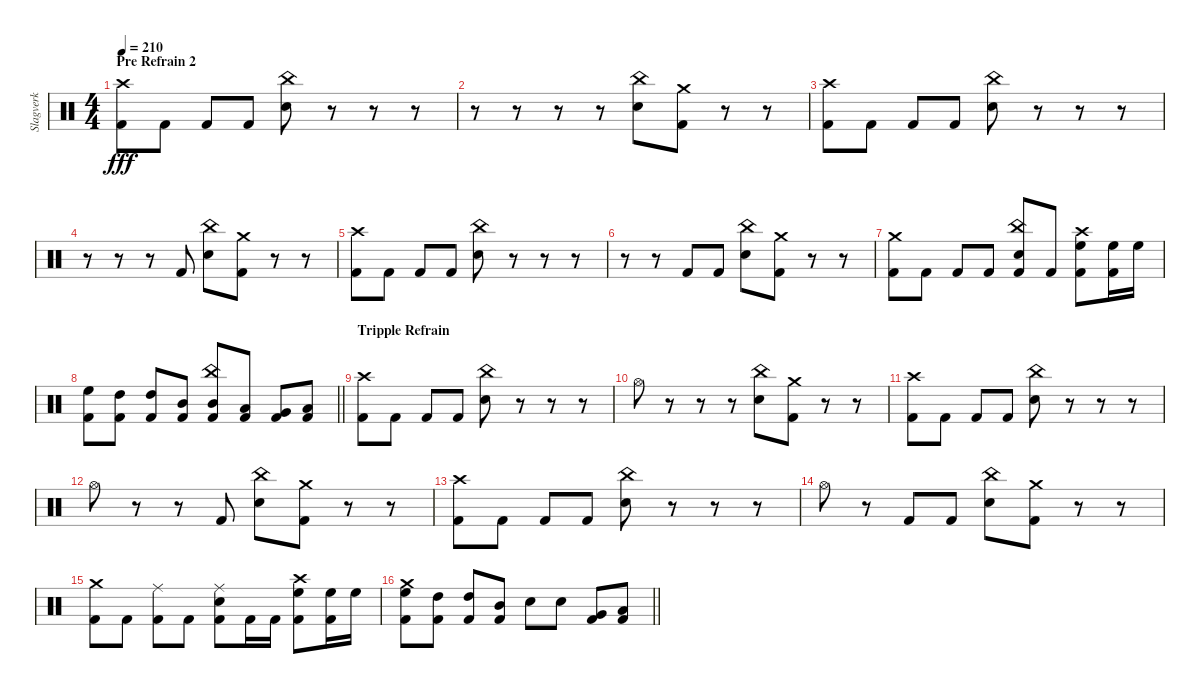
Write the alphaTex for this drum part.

\track ("Slagverk" "Slagverk") {instrument percussion}
\staff {score}
\articulation defaults
\ts (4 4)
\section ("" "Pre Refrain 2")
\tempo 210
\clef neutral
\ks c
("Crash high (hit)" "Kick (hit) 2").8{dy fff} "Kick (hit) 2".8 "Kick (hit) 2".8 "Kick (hit) 2".8 ("China (hit)" "Electric Snare (hit)").8 r.8 r.8 r.8 |
r.8 r.8 r.8 r.8 ("China (hit)" "Electric Snare (hit)").8 ("Crash medium (hit)" "Kick (hit) 2").8 r.8 r.8 |
("Crash high (hit)" "Kick (hit) 2").8 "Kick (hit) 2".8 "Kick (hit) 2".8 "Kick (hit) 2".8 ("China (hit)" "Electric Snare (hit)").8 r.8 r.8 r.8 |
r.8 r.8 r.8 "Kick (hit) 2".8 ("China (hit)" "Electric Snare (hit)").8 ("Crash medium (hit)" "Kick (hit) 2").8 r.8 r.8 |
("Crash high (hit)" "Kick (hit) 2").8 "Kick (hit) 2".8 "Kick (hit) 2".8 "Kick (hit) 2".8 ("China (hit)" "Electric Snare (hit)").8 r.8 r.8 r.8 |
r.8 r.8 "Kick (hit) 2".8 "Kick (hit) 2".8 ("China (hit)" "Electric Snare (hit)").8 ("Crash medium (hit)" "Kick (hit) 2").8 r.8 r.8 |
("Crash medium (hit)" "Kick (hit) 2").8 "Kick (hit) 2".8 "Kick (hit) 2".8 "Kick (hit) 2".8 ("China (hit)" "Electric Snare (hit)" "Kick (hit) 2").8 "Kick (hit) 2".8 ("Crash high (hit)" "High Floor Tom (hit)" "Kick (hit) 2").8 ("High Floor Tom (hit)" "Kick (hit) 2").16 "High Floor Tom (hit)".16 |
\barLineRight lightlight
("High Floor Tom (hit)" "Kick (hit) 2").8 ("High Tom (hit)" "Kick (hit) 2").8 ("High Tom (hit)" "Kick (hit) 2").8 ("Mid Tom (hit)" "Kick (hit) 2").8 ("China (hit)" "Mid Tom (hit)" "Kick (hit) 2").8 ("Low Tom (hit)" "Kick (hit) 2").8 ("Very Low Tom (hit)" "Kick (hit) 2").8 ("Low Floor Tom (hit)" "Kick (hit) 2").8 |
\section ("" "Tripple Refrain")
("Crash high (hit)" "Kick (hit) 2").8 "Kick (hit) 2".8 "Kick (hit) 2".8 "Kick (hit) 2".8 ("China (hit)" "Electric Snare (hit)").8 r.8 r.8 r.8 |
"Hi-Hat (open)".8 r.8 r.8 r.8 ("China (hit)" "Electric Snare (hit)").8 ("Crash medium (hit)" "Kick (hit) 2").8 r.8 r.8 |
("Crash high (hit)" "Kick (hit) 2").8 "Kick (hit) 2".8 "Kick (hit) 2".8 "Kick (hit) 2".8 ("China (hit)" "Electric Snare (hit)").8 r.8 r.8 r.8 |
"Hi-Hat (open)".8 r.8 r.8 "Kick (hit) 2".8 ("China (hit)" "Electric Snare (hit)").8 ("Crash medium (hit)" "Kick (hit) 2").8 r.8 r.8 |
("Crash high (hit)" "Kick (hit) 2").8 "Kick (hit) 2".8 "Kick (hit) 2".8 "Kick (hit) 2".8 ("China (hit)" "Electric Snare (hit)").8 r.8 r.8 r.8 |
"Hi-Hat (open)".8 r.8 "Kick (hit) 2".8 "Kick (hit) 2".8 ("China (hit)" "Electric Snare (hit)").8 ("Crash medium (hit)" "Kick (hit) 2").8 r.8 r.8 |
("Crash medium (hit)" "Kick (hit) 2").8 "Kick (hit) 2".8 ("Ride (middle)" "Kick (hit) 2").8 "Kick (hit) 2".8 ("Ride (middle)" "Electric Snare (hit)" "Kick (hit) 2").8 "Kick (hit) 2".16 "Kick (hit) 2".16 ("Crash high (hit)" "High Floor Tom (hit)" "Kick (hit) 2").8 ("High Floor Tom (hit)" "Kick (hit) 2").16 "High Floor Tom (hit)".16 |
\barLineRight lightlight
("Crash medium (hit)" "High Floor Tom (hit)" "Kick (hit) 2").8 ("High Tom (hit)" "Kick (hit) 2").8 ("High Tom (hit)" "Kick (hit) 2").8 ("Mid Tom (hit)" "Kick (hit) 2").8 "Electric Snare (hit)".8 "Electric Snare (hit)".8 ("Very Low Tom (hit)" "Kick (hit) 2").8 ("Low Floor Tom (hit)" "Kick (hit) 2").8
